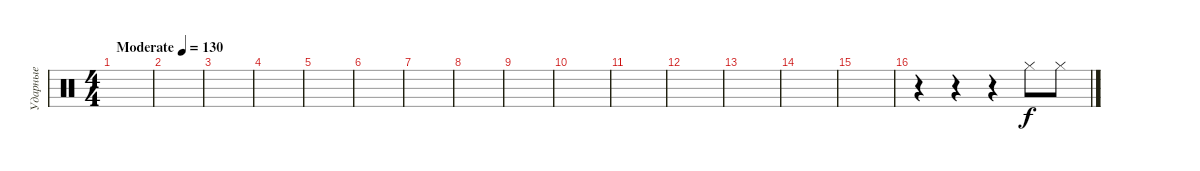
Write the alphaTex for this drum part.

\track ("Ударные" "Ударные") {instrument percussion}
\staff {score}
\articulation defaults
\ts (4 4)
\tempo (130 "Moderate")
\clef neutral
\ks c
|
|
|
|
|
|
|
|
|
|
|
|
|
|
|
r.4 r.4 r.4 "Hi-Hat (closed)".8 "Hi-Hat (closed)".8
